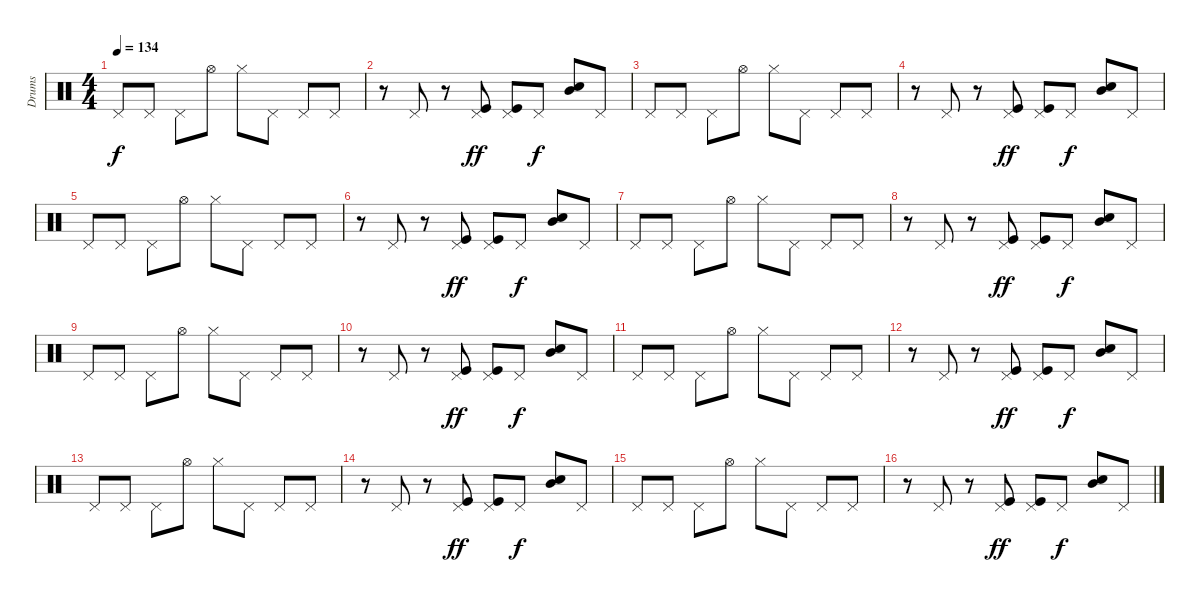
\track ("Drums" "Drums") {instrument percussion}
\staff {score}
\articulation defaults
\ts (4 4)
\tempo 134
\clef neutral
\ks c "Pedal Hi-Hat (hit)".8{dy f} "Pedal Hi-Hat (hit)".8 "Pedal Hi-Hat (hit)".8 "Hi-Hat (open)".8 "Hi-Hat (closed)".8 "Pedal Hi-Hat (hit)".8 "Pedal Hi-Hat (hit)".8 "Pedal Hi-Hat (hit)".8
|
r.8 "Pedal Hi-Hat (hit)".8 r.8 ("Pedal Hi-Hat (hit)" "Kick (hit)").8{dy ff} ("Pedal Hi-Hat (hit)" "Kick (hit)").8 "Pedal Hi-Hat (hit)".8{dy f} ("Mid Tom (hit)" "Snare (hit) 2").8 "Pedal Hi-Hat (hit)".8 |
"Pedal Hi-Hat (hit)".8 "Pedal Hi-Hat (hit)".8 "Pedal Hi-Hat (hit)".8 "Hi-Hat (open)".8 "Hi-Hat (closed)".8 "Pedal Hi-Hat (hit)".8 "Pedal Hi-Hat (hit)".8 "Pedal Hi-Hat (hit)".8 |
r.8 "Pedal Hi-Hat (hit)".8 r.8 ("Pedal Hi-Hat (hit)" "Kick (hit)").8{dy ff} ("Pedal Hi-Hat (hit)" "Kick (hit)").8 "Pedal Hi-Hat (hit)".8{dy f} ("Mid Tom (hit)" "Snare (hit) 2").8 "Pedal Hi-Hat (hit)".8 |
"Pedal Hi-Hat (hit)".8 "Pedal Hi-Hat (hit)".8 "Pedal Hi-Hat (hit)".8 "Hi-Hat (open)".8 "Hi-Hat (closed)".8 "Pedal Hi-Hat (hit)".8 "Pedal Hi-Hat (hit)".8 "Pedal Hi-Hat (hit)".8 |
r.8 "Pedal Hi-Hat (hit)".8 r.8 ("Pedal Hi-Hat (hit)" "Kick (hit)").8{dy ff} ("Pedal Hi-Hat (hit)" "Kick (hit)").8 "Pedal Hi-Hat (hit)".8{dy f} ("Mid Tom (hit)" "Snare (hit) 2").8 "Pedal Hi-Hat (hit)".8 |
"Pedal Hi-Hat (hit)".8 "Pedal Hi-Hat (hit)".8 "Pedal Hi-Hat (hit)".8 "Hi-Hat (open)".8 "Hi-Hat (closed)".8 "Pedal Hi-Hat (hit)".8 "Pedal Hi-Hat (hit)".8 "Pedal Hi-Hat (hit)".8 |
r.8 "Pedal Hi-Hat (hit)".8 r.8 ("Pedal Hi-Hat (hit)" "Kick (hit)").8{dy ff} ("Pedal Hi-Hat (hit)" "Kick (hit)").8 "Pedal Hi-Hat (hit)".8{dy f} ("Mid Tom (hit)" "Snare (hit) 2").8 "Pedal Hi-Hat (hit)".8 |
"Pedal Hi-Hat (hit)".8 "Pedal Hi-Hat (hit)".8 "Pedal Hi-Hat (hit)".8 "Hi-Hat (open)".8 "Hi-Hat (closed)".8 "Pedal Hi-Hat (hit)".8 "Pedal Hi-Hat (hit)".8 "Pedal Hi-Hat (hit)".8 |
r.8 "Pedal Hi-Hat (hit)".8 r.8 ("Pedal Hi-Hat (hit)" "Kick (hit)").8{dy ff} ("Pedal Hi-Hat (hit)" "Kick (hit)").8 "Pedal Hi-Hat (hit)".8{dy f} ("Mid Tom (hit)" "Snare (hit) 2").8 "Pedal Hi-Hat (hit)".8 |
"Pedal Hi-Hat (hit)".8 "Pedal Hi-Hat (hit)".8 "Pedal Hi-Hat (hit)".8 "Hi-Hat (open)".8 "Hi-Hat (closed)".8 "Pedal Hi-Hat (hit)".8 "Pedal Hi-Hat (hit)".8 "Pedal Hi-Hat (hit)".8 |
r.8 "Pedal Hi-Hat (hit)".8 r.8 ("Pedal Hi-Hat (hit)" "Kick (hit)").8{dy ff} ("Pedal Hi-Hat (hit)" "Kick (hit)").8 "Pedal Hi-Hat (hit)".8{dy f} ("Mid Tom (hit)" "Snare (hit) 2").8 "Pedal Hi-Hat (hit)".8 |
"Pedal Hi-Hat (hit)".8 "Pedal Hi-Hat (hit)".8 "Pedal Hi-Hat (hit)".8 "Hi-Hat (open)".8 "Hi-Hat (closed)".8 "Pedal Hi-Hat (hit)".8 "Pedal Hi-Hat (hit)".8 "Pedal Hi-Hat (hit)".8 |
r.8 "Pedal Hi-Hat (hit)".8 r.8 ("Pedal Hi-Hat (hit)" "Kick (hit)").8{dy ff} ("Pedal Hi-Hat (hit)" "Kick (hit)").8 "Pedal Hi-Hat (hit)".8{dy f} ("Mid Tom (hit)" "Snare (hit) 2").8 "Pedal Hi-Hat (hit)".8 |
"Pedal Hi-Hat (hit)".8 "Pedal Hi-Hat (hit)".8 "Pedal Hi-Hat (hit)".8 "Hi-Hat (open)".8 "Hi-Hat (closed)".8 "Pedal Hi-Hat (hit)".8 "Pedal Hi-Hat (hit)".8 "Pedal Hi-Hat (hit)".8 |
r.8 "Pedal Hi-Hat (hit)".8 r.8 ("Pedal Hi-Hat (hit)" "Kick (hit)").8{dy ff} ("Pedal Hi-Hat (hit)" "Kick (hit)").8 "Pedal Hi-Hat (hit)".8{dy f} ("Mid Tom (hit)" "Snare (hit) 2").8 "Pedal Hi-Hat (hit)".8
